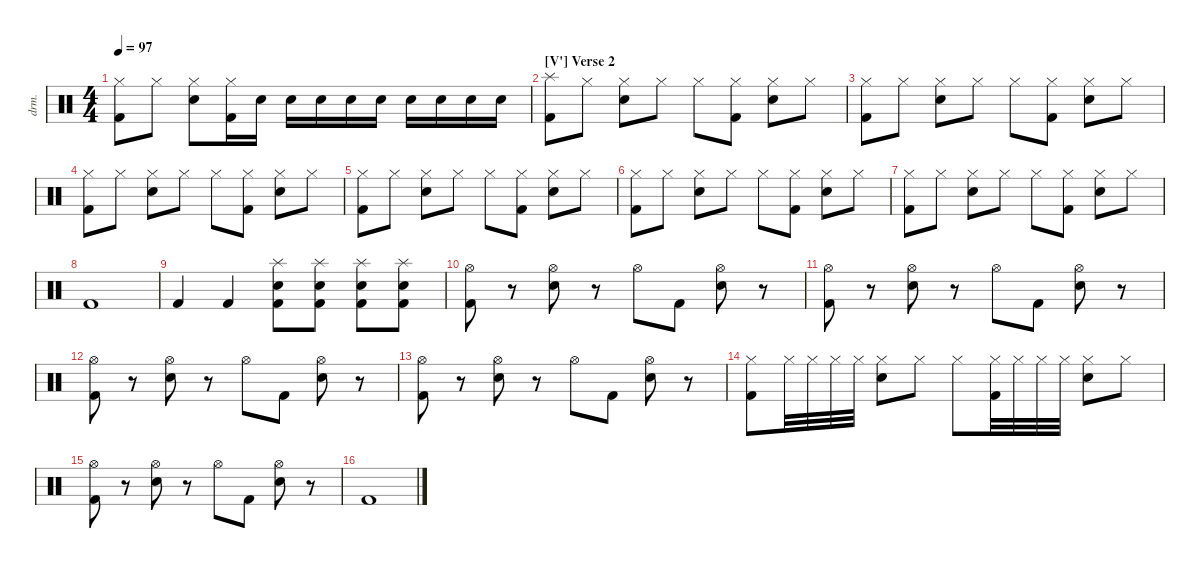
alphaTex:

\defaultSystemsLayout 4
\hideDynamics
\bracketExtendMode nobrackets
\track ("Drumkit" "drm.") {instrument percussion}
\staff {score}
\articulation defaults
\ts (4 4)
\tempo 97
\clef neutral
\ks c
("Kick (hit) 2" "Hi-Hat (closed)").8{dy mf beam Down} "Hi-Hat (closed)".8{beam Down} ("Hi-Hat (closed)" "Snare (hit) 2").8{beam Down} ("Hi-Hat (closed)" "Kick (hit) 2").16{beam Down} "Snare (hit) 2".16{beam Down} "Snare (hit) 2".16{beam Down} "Snare (hit) 2".16{beam Down} "Snare (hit) 2".16{beam Down} "Snare (hit) 2".16{beam Down} "Snare (hit) 2".16{beam Down} "Snare (hit) 2".16{beam Down} "Snare (hit) 2".16{beam Down} "Snare (hit) 2".16{beam Down} |
\section ("V'" "Verse 2")
("Kick (hit) 2" "Splash (hit)").8{beam Down} "Hi-Hat (closed)".8{beam Down} ("Hi-Hat (closed)" "Snare (hit) 2").8{beam Down} "Hi-Hat (closed)".8{beam Down} "Hi-Hat (closed)".8{beam Down} ("Kick (hit) 2" "Hi-Hat (closed)").8{beam Down} ("Hi-Hat (closed)" "Snare (hit) 2").8{beam Down} "Hi-Hat (closed)".8{beam Down} |
("Kick (hit) 2" "Hi-Hat (closed)").8{beam Down} "Hi-Hat (closed)".8{beam Down} ("Hi-Hat (closed)" "Snare (hit) 2").8{beam Down} "Hi-Hat (closed)".8{beam Down} "Hi-Hat (closed)".8{beam Down} ("Kick (hit) 2" "Hi-Hat (closed)").8{beam Down} ("Hi-Hat (closed)" "Snare (hit) 2").8{beam Down} "Hi-Hat (closed)".8{beam Down} |
("Kick (hit) 2" "Hi-Hat (closed)").8{beam Down} "Hi-Hat (closed)".8{beam Down} ("Hi-Hat (closed)" "Snare (hit) 2").8{beam Down} "Hi-Hat (closed)".8{beam Down} "Hi-Hat (closed)".8{beam Down} ("Kick (hit) 2" "Hi-Hat (closed)").8{beam Down} ("Hi-Hat (closed)" "Snare (hit) 2").8{beam Down} "Hi-Hat (closed)".8{beam Down} |
("Kick (hit) 2" "Hi-Hat (closed)").8{beam Down} "Hi-Hat (closed)".8{beam Down} ("Hi-Hat (closed)" "Snare (hit) 2").8{beam Down} "Hi-Hat (closed)".8{beam Down} "Hi-Hat (closed)".8{beam Down} ("Kick (hit) 2" "Hi-Hat (closed)").8{beam Down} ("Hi-Hat (closed)" "Snare (hit) 2").8{beam Down} "Hi-Hat (closed)".8{beam Down} |
("Kick (hit) 2" "Hi-Hat (closed)").8{beam Down} "Hi-Hat (closed)".8{beam Down} ("Hi-Hat (closed)" "Snare (hit) 2").8{beam Down} "Hi-Hat (closed)".8{beam Down} "Hi-Hat (closed)".8{beam Down} ("Kick (hit) 2" "Hi-Hat (closed)").8{beam Down} ("Hi-Hat (closed)" "Snare (hit) 2").8{beam Down} "Hi-Hat (closed)".8{beam Down} |
("Kick (hit) 2" "Hi-Hat (closed)").8{beam Down} "Hi-Hat (closed)".8{beam Down} ("Hi-Hat (closed)" "Snare (hit) 2").8{beam Down} "Hi-Hat (closed)".8{beam Down} "Hi-Hat (closed)".8{beam Down} ("Kick (hit) 2" "Hi-Hat (closed)").8{beam Down} ("Hi-Hat (closed)" "Snare (hit) 2").8{beam Down} "Hi-Hat (closed)".8{beam Down} |
"Kick (hit) 2".1{beam Up} |
"Kick (hit) 2".4{beam Up} "Kick (hit) 2".4{beam Up} ("Kick (hit) 2" "Snare (hit) 2" "Splash (hit)").8{beam Down} ("Kick (hit) 2" "Snare (hit) 2" "Splash (hit)").8{beam Down} ("Snare (hit) 2" "Kick (hit) 2" "Splash (hit)").8{beam Down} ("Kick (hit) 2" "Snare (hit) 2" "Splash (hit)").8{beam Down} |
("Kick (hit) 2" "Hi-Hat (open)").8{beam Down} r.8{beam Down} ("Hi-Hat (open)" "Snare (hit) 2").8{beam Down} r.8{beam Down} "Hi-Hat (open)".8{beam Down} "Kick (hit) 2".8{beam Down} ("Hi-Hat (open)" "Snare (hit) 2").8{beam Down} r.8{beam Down} |
("Kick (hit) 2" "Hi-Hat (open)").8{beam Down} r.8{beam Down} ("Hi-Hat (open)" "Snare (hit) 2").8{beam Down} r.8{beam Down} "Hi-Hat (open)".8{beam Down} "Kick (hit) 2".8{beam Down} ("Hi-Hat (open)" "Snare (hit) 2").8{beam Down} r.8{beam Down} |
("Kick (hit) 2" "Hi-Hat (open)").8{beam Down} r.8{beam Down} ("Hi-Hat (open)" "Snare (hit) 2").8{beam Down} r.8{beam Down} "Hi-Hat (open)".8{beam Down} "Kick (hit) 2".8{beam Down} ("Hi-Hat (open)" "Snare (hit) 2").8{beam Down} r.8{beam Down} |
("Kick (hit) 2" "Hi-Hat (open)").8{beam Down} r.8{beam Down} ("Hi-Hat (open)" "Snare (hit) 2").8{beam Down} r.8{beam Down} "Hi-Hat (open)".8{beam Down} "Kick (hit) 2".8{beam Down} ("Hi-Hat (open)" "Snare (hit) 2").8{beam Down} r.8{beam Down} |
("Kick (hit) 2" "Hi-Hat (closed)").8{beam Down} "Hi-Hat (closed)".32{beam Down} "Hi-Hat (closed)".32{beam Down} "Hi-Hat (closed)".32{beam Down} "Hi-Hat (closed)".32{beam Down} ("Hi-Hat (closed)" "Snare (hit) 2").8{beam Down} "Hi-Hat (closed)".8{beam Down} "Hi-Hat (closed)".8{beam Down} ("Kick (hit) 2" "Hi-Hat (closed)").32{beam Down} "Hi-Hat (closed)".32{beam Down} "Hi-Hat (closed)".32{beam Down} "Hi-Hat (closed)".32{beam Down} ("Hi-Hat (closed)" "Snare (hit) 2").8{beam Down} "Hi-Hat (closed)".8{beam Down} |
("Kick (hit) 2" "Hi-Hat (open)").8{beam Down} r.8{beam Down} ("Hi-Hat (open)" "Snare (hit) 2").8{beam Down} r.8{beam Down} "Hi-Hat (open)".8{beam Down} "Kick (hit) 2".8{beam Down} ("Hi-Hat (open)" "Snare (hit) 2").8{beam Down} r.8{beam Down} |
"Kick (hit) 2".1{beam Up}
